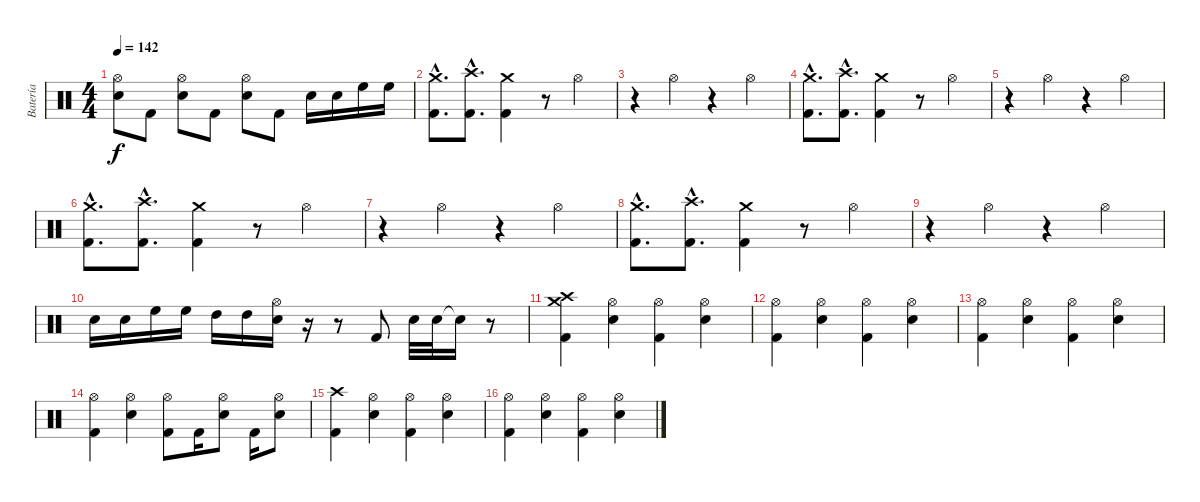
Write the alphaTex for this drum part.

\track ("Batería" "Batería") {instrument percussion}
\staff {score}
\articulation defaults
\ts (4 4)
\tempo 142
\clef neutral
\ks c
("Hi-Hat (open)" "Electric Snare (hit)").8{dy f} "Kick (hit) 2".8 ("Hi-Hat (open)" "Electric Snare (hit)").8 "Kick (hit) 2".8 ("Hi-Hat (open)" "Electric Snare (hit)").8 "Kick (hit) 2".8 "Electric Snare (hit)".16 "Electric Snare (hit)".16 "High Floor Tom (hit)".16 "High Floor Tom (hit)".16 |
("Crash medium (hit)"{hac} "Kick (hit) 2"{hac}).8{d} ("Crash high (hit)"{hac} "Kick (hit) 2"{hac}).8{d} ("Crash medium (hit)" "Kick (hit) 2").4 r.8 "Hi-Hat (open)".4 |
r.4 "Hi-Hat (open)".4 r.4 "Hi-Hat (open)".4 |
("Crash medium (hit)"{hac} "Kick (hit) 2"{hac}).8{d} ("Crash high (hit)"{hac} "Kick (hit) 2"{hac}).8{d} ("Crash medium (hit)" "Kick (hit) 2").4 r.8 "Hi-Hat (open)".4 |
r.4 "Hi-Hat (open)".4 r.4 "Hi-Hat (open)".4 |
("Crash medium (hit)"{hac} "Kick (hit) 2"{hac}).8{d} ("Crash high (hit)"{hac} "Kick (hit) 2"{hac}).8{d} ("Crash medium (hit)" "Kick (hit) 2").4 r.8 "Hi-Hat (open)".4 |
r.4 "Hi-Hat (open)".4 r.4 "Hi-Hat (open)".4 |
("Crash medium (hit)"{hac} "Kick (hit) 2"{hac}).8{d} ("Crash high (hit)"{hac} "Kick (hit) 2"{hac}).8{d} ("Crash medium (hit)" "Kick (hit) 2").4 r.8 "Hi-Hat (open)".4 |
r.4 "Hi-Hat (open)".4 r.4 "Hi-Hat (open)".4 |
"Electric Snare (hit)".16 "Electric Snare (hit)".16 "High Floor Tom (hit)".16 "High Floor Tom (hit)".16 "High Tom (hit)".16 "High Tom (hit)".16 ("Hi-Hat (open)" "Electric Snare (hit)").16 r.16 r.8 "Kick (hit) 2".8 "Electric Snare (hit)".32 "Electric Snare (hit)".32 "Snare (hit)"{t}.16 r.8 |
("Crash high (hit)" "Crash medium (hit)" "Kick (hit) 2").4 ("Hi-Hat (open)" "Electric Snare (hit)").4 ("Hi-Hat (open)" "Kick (hit) 2").4 ("Hi-Hat (open)" "Electric Snare (hit)").4 |
("Hi-Hat (open)" "Kick (hit) 2").4 ("Hi-Hat (open)" "Electric Snare (hit)").4 ("Hi-Hat (open)" "Kick (hit) 2").4 ("Hi-Hat (open)" "Electric Snare (hit)").4 |
("Hi-Hat (open)" "Kick (hit) 2").4 ("Hi-Hat (open)" "Electric Snare (hit)").4 ("Hi-Hat (open)" "Kick (hit) 2").4 ("Hi-Hat (open)" "Electric Snare (hit)").4 |
("Hi-Hat (open)" "Kick (hit) 2").4 ("Hi-Hat (open)" "Electric Snare (hit)").4 ("Hi-Hat (open)" "Kick (hit) 2").8 "Kick (hit) 2".16 ("Hi-Hat (open)" "Electric Snare (hit)").8 "Kick (hit) 2".16 ("Hi-Hat (open)" "Electric Snare (hit)").8 |
("Crash high (hit)" "Kick (hit) 2").4 ("Hi-Hat (open)" "Electric Snare (hit)").4 ("Hi-Hat (open)" "Kick (hit) 2").4 ("Hi-Hat (open)" "Electric Snare (hit)").4 |
("Hi-Hat (open)" "Kick (hit) 2").4 ("Hi-Hat (open)" "Electric Snare (hit)").4 ("Hi-Hat (open)" "Kick (hit) 2").4 ("Hi-Hat (open)" "Electric Snare (hit)").4
